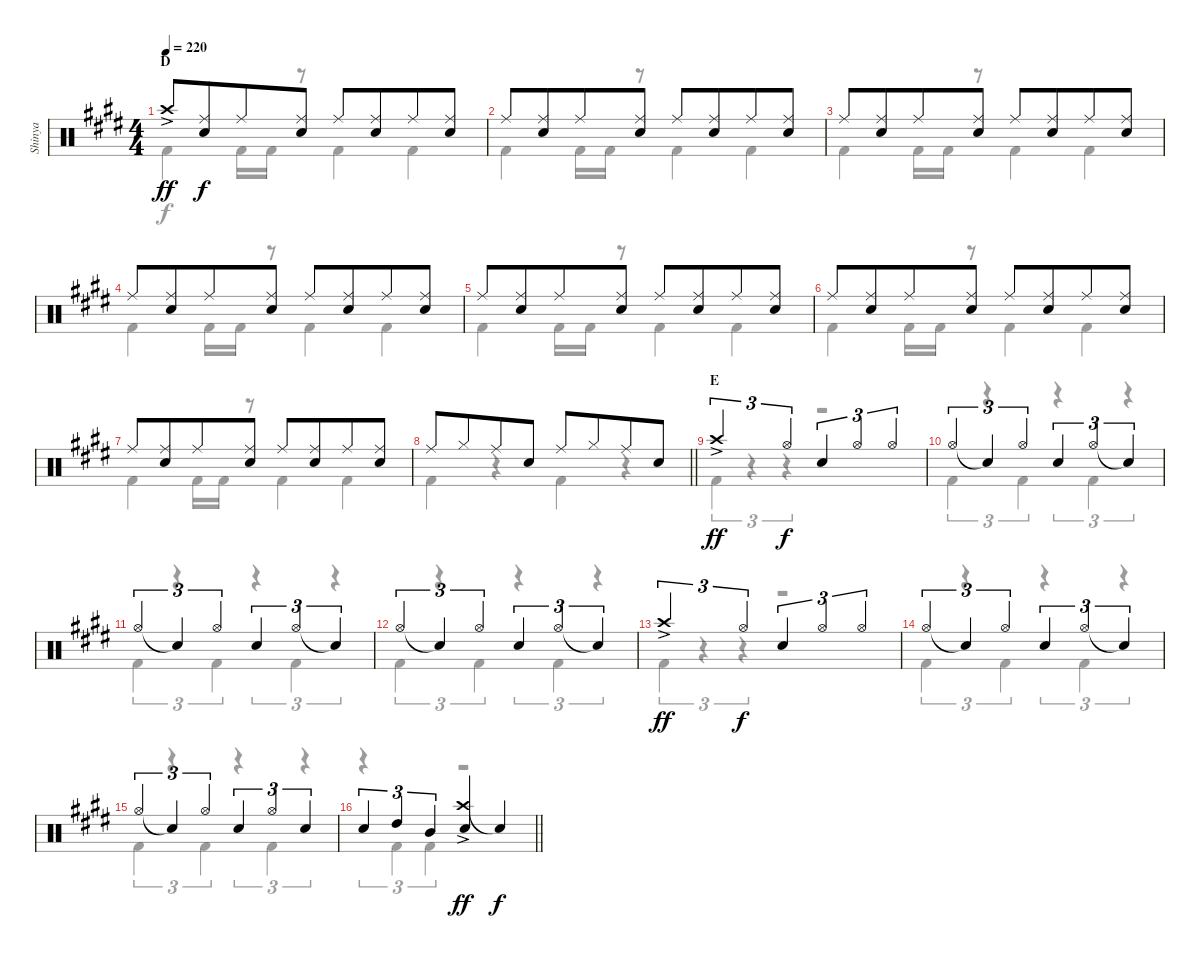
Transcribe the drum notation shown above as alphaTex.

\track ("Shinya" "Shinya") {instrument percussion}
\staff {score}
\articulation defaults
\voice
\ts (4 4)
\section ("" "D")
\tempo 220
\clef neutral
\ks c#minor "Crash high (hit)"{ac}.8{dy ff}
("Ride (middle)" "Snare (hit) 2").8{dy f beam merge} "Ride (middle)".8 ("Ride (middle)" "Snare (hit) 2").8 "Ride (middle)".8 ("Ride (middle)" "Snare (hit) 2").8{beam merge} "Ride (middle)".8 ("Ride (middle)" "Snare (hit) 2").8 |
"Ride (middle)".8 ("Ride (middle)" "Snare (hit) 2").8{beam merge} "Ride (middle)".8 ("Ride (middle)" "Snare (hit) 2").8 "Ride (middle)".8 ("Ride (middle)" "Snare (hit) 2").8{beam merge} "Ride (middle)".8 ("Ride (middle)" "Snare (hit) 2").8 |
"Ride (middle)".8 ("Ride (middle)" "Snare (hit) 2").8{beam merge} "Ride (middle)".8 ("Ride (middle)" "Snare (hit) 2").8 "Ride (middle)".8 ("Ride (middle)" "Snare (hit) 2").8{beam merge} "Ride (middle)".8 ("Ride (middle)" "Snare (hit) 2").8 |
"Ride (middle)".8 ("Ride (middle)" "Snare (hit) 2").8{beam merge} "Ride (middle)".8 ("Ride (middle)" "Snare (hit) 2").8 "Ride (middle)".8 ("Ride (middle)" "Snare (hit) 2").8{beam merge} "Ride (middle)".8 ("Ride (middle)" "Snare (hit) 2").8 |
"Ride (middle)".8 ("Ride (middle)" "Snare (hit) 2").8{beam merge} "Ride (middle)".8 ("Ride (middle)" "Snare (hit) 2").8 "Ride (middle)".8 ("Ride (middle)" "Snare (hit) 2").8{beam merge} "Ride (middle)".8 ("Ride (middle)" "Snare (hit) 2").8 |
"Ride (middle)".8 ("Ride (middle)" "Snare (hit) 2").8{beam merge} "Ride (middle)".8 ("Ride (middle)" "Snare (hit) 2").8 "Ride (middle)".8 ("Ride (middle)" "Snare (hit) 2").8{beam merge} "Ride (middle)".8 ("Ride (middle)" "Snare (hit) 2").8 |
"Ride (middle)".8 ("Ride (middle)" "Snare (hit) 2").8{beam merge} "Ride (middle)".8 ("Ride (middle)" "Snare (hit) 2").8 "Ride (middle)".8 ("Ride (middle)" "Snare (hit) 2").8{beam merge} "Ride (middle)".8 ("Ride (middle)" "Snare (hit) 2").8 |
\barLineRight lightlight "Ride (middle)".8 "Hi-Hat (closed)".8{beam merge} "Ride (middle)".8 "Snare (hit) 2".8 "Ride (middle)".8 "Hi-Hat (closed)".8{beam merge} "Ride (middle)".8 "Snare (hit) 2".8
|
\section ("" "E")
"Crash high (hit)"{ac}.2{tu (3 2) dy ff} "Hi-Hat (open)".4{tu (3 2) dy f} "Snare (hit) 2".4{tu (3 2)} "Hi-Hat (open)".4{tu (3 2)} "Hi-Hat (open)".4{tu (3 2)} |
"Hi-Hat (open)".4{tu (3 2)} "Snare (hit)"{t}.4{tu (3 2)} "Hi-Hat (open)".4{tu (3 2)} "Snare (hit) 2".4{tu (3 2)} "Hi-Hat (open)".4{tu (3 2)} "Snare (hit)"{t}.4{tu (3 2)} |
"Hi-Hat (open)".4{tu (3 2)} "Snare (hit)"{t}.4{tu (3 2)} "Hi-Hat (open)".4{tu (3 2)} "Snare (hit) 2".4{tu (3 2)} "Hi-Hat (open)".4{tu (3 2)} "Snare (hit)"{t}.4{tu (3 2)} |
"Hi-Hat (open)".4{tu (3 2)} "Snare (hit)"{t}.4{tu (3 2)} "Hi-Hat (open)".4{tu (3 2)} "Snare (hit) 2".4{tu (3 2)} "Hi-Hat (open)".4{tu (3 2)} "Snare (hit)"{t}.4{tu (3 2)} |
"Crash high (hit)"{ac}.2{tu (3 2) dy ff} "Hi-Hat (open)".4{tu (3 2) dy f} "Snare (hit) 2".4{tu (3 2)} "Hi-Hat (open)".4{tu (3 2)} "Hi-Hat (open)".4{tu (3 2)} |
"Hi-Hat (open)".4{tu (3 2)} "Snare (hit)"{t}.4{tu (3 2)} "Hi-Hat (open)".4{tu (3 2)} "Snare (hit) 2".4{tu (3 2)} "Hi-Hat (open)".4{tu (3 2)} "Snare (hit)"{t}.4{tu (3 2)} |
"Hi-Hat (open)".4{tu (3 2)} "Snare (hit)"{t}.4{tu (3 2)} "Hi-Hat (open)".4{tu (3 2)} "Snare (hit) 2".4{tu (3 2)} "Hi-Hat (open)".4{tu (3 2)} "Snare (hit) 2".4{tu (3 2)} |
\barLineRight lightlight "Snare (hit) 2".4{tu (3 2)} "High Tom (hit)".4{tu (3 2)} "Mid Tom (hit)".4{tu (3 2)}
("Crash high (hit)"{ac} "Snare (hit) 2").4{dy ff} "Snare (hit)"{t}.4{dy f}
\voice
\clef neutral
\ottava regular
\simile none
\ks c#minor "Kick (hit) 2".4{dy f} "Kick (hit) 2".16 "Kick (hit) 2".16
r.8 "Kick (hit) 2".4 "Kick (hit) 2".4 |
"Kick (hit) 2".4 "Kick (hit) 2".16 "Kick (hit) 2".16 r.8 "Kick (hit) 2".4 "Kick (hit) 2".4 |
"Kick (hit) 2".4 "Kick (hit) 2".16 "Kick (hit) 2".16 r.8 "Kick (hit) 2".4 "Kick (hit) 2".4 |
"Kick (hit) 2".4 "Kick (hit) 2".16 "Kick (hit) 2".16 r.8 "Kick (hit) 2".4 "Kick (hit) 2".4 |
"Kick (hit) 2".4 "Kick (hit) 2".16 "Kick (hit) 2".16 r.8 "Kick (hit) 2".4 "Kick (hit) 2".4 |
"Kick (hit) 2".4 "Kick (hit) 2".16 "Kick (hit) 2".16 r.8 "Kick (hit) 2".4 "Kick (hit) 2".4 |
"Kick (hit) 2".4 "Kick (hit) 2".16 "Kick (hit) 2".16 r.8 "Kick (hit) 2".4 "Kick (hit) 2".4 |
\barLineRight lightlight "Kick (hit) 2".4
r.4 "Kick (hit) 2".4 r.4 |
"Kick (hit) 2".4{tu (3 2)} r.4{tu (3 2)} r.4{tu (3 2)} r.2 |
"Kick (hit) 2".4{tu (3 2)} r.4{tu (3 2)} "Kick (hit) 2".4{tu (3 2)} r.4{tu (3 2)} "Kick (hit) 2".4{tu (3 2)} r.4{tu (3 2)} |
"Kick (hit) 2".4{tu (3 2)} r.4{tu (3 2)} "Kick (hit) 2".4{tu (3 2)} r.4{tu (3 2)} "Kick (hit) 2".4{tu (3 2)} r.4{tu (3 2)} |
"Kick (hit) 2".4{tu (3 2)} r.4{tu (3 2)} "Kick (hit) 2".4{tu (3 2)} r.4{tu (3 2)} "Kick (hit) 2".4{tu (3 2)} r.4{tu (3 2)} |
"Kick (hit) 2".4{tu (3 2)} r.4{tu (3 2)} r.4{tu (3 2)} r.2 |
"Kick (hit) 2".4{tu (3 2)} r.4{tu (3 2)} "Kick (hit) 2".4{tu (3 2)} r.4{tu (3 2)} "Kick (hit) 2".4{tu (3 2)} r.4{tu (3 2)} |
"Kick (hit) 2".4{tu (3 2)} r.4{tu (3 2)} "Kick (hit) 2".4{tu (3 2)} r.4{tu (3 2)} "Kick (hit) 2".4{tu (3 2)} r.4{tu (3 2)} |
\barLineRight lightlight
r.4{tu (3 2)} "Kick (hit) 2".4{tu (3 2)} "Kick (hit) 2".4{tu (3 2)} r.2
